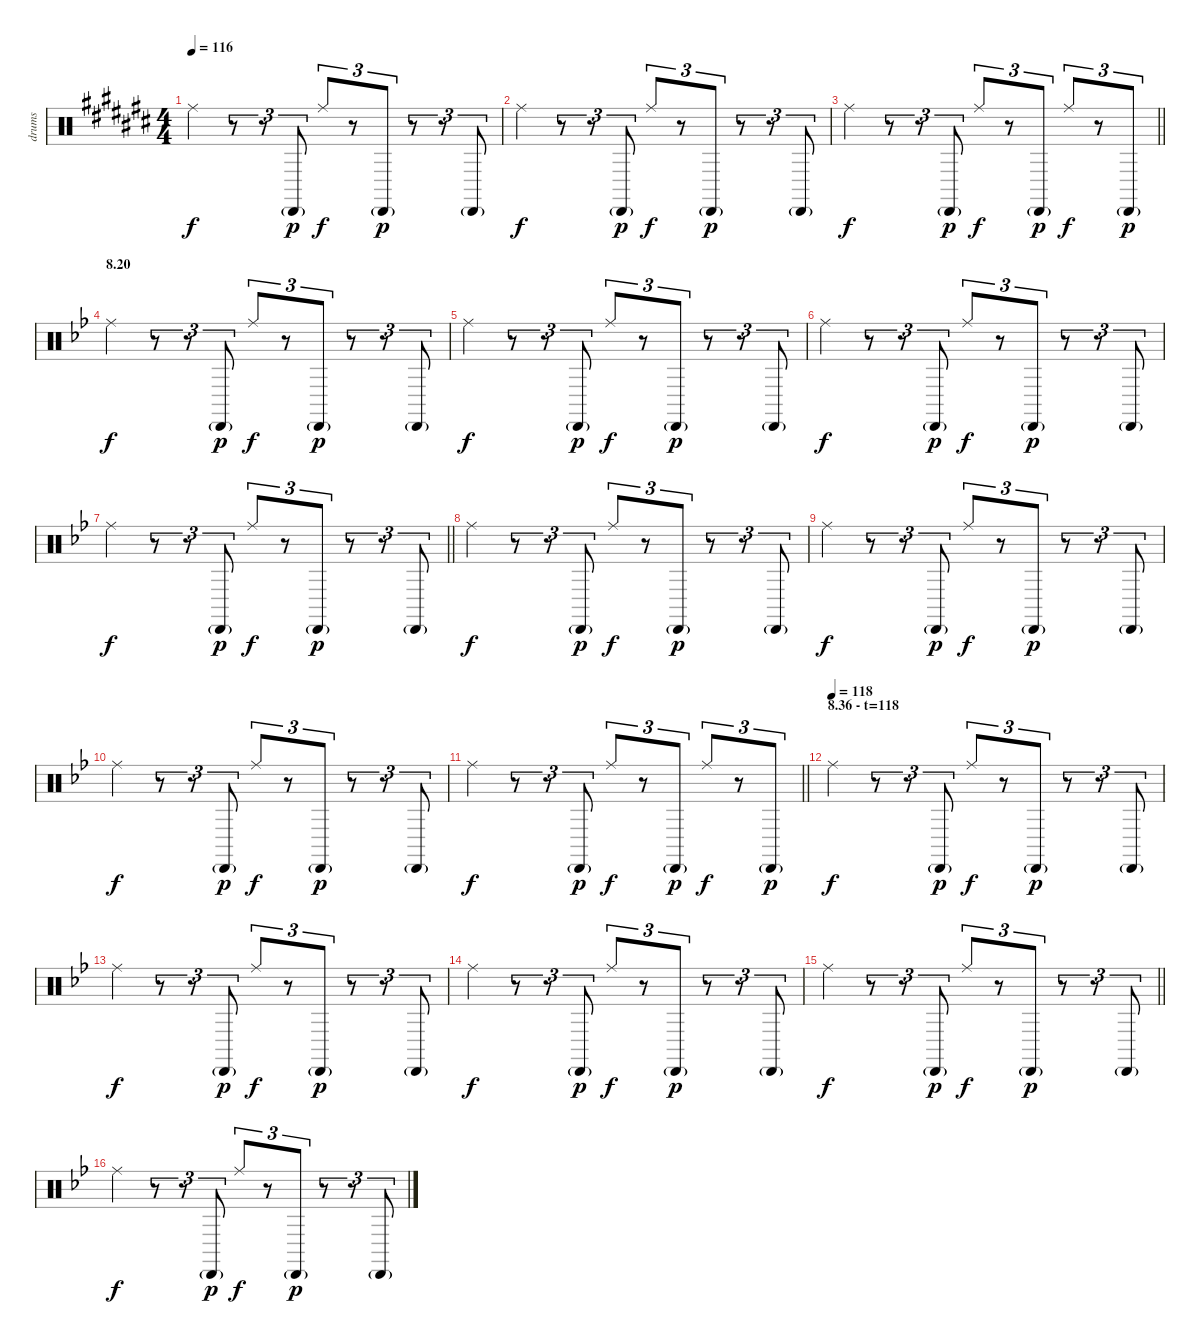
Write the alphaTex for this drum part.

\track ("drums" "drums") {instrument percussion}
\staff {score}
\articulation defaults
\ts (4 4)
\tempo 116
\clef neutral
\ks c# "Ride (middle)".4{dy f}
r.8{tu (3 2)} r.8{tu (3 2)} "Cabasa (hit)"{g}.8{tu (3 2) dy p} "Ride (middle)".8{tu (3 2) dy f} r.8{tu (3 2)} "Cabasa (hit)"{g}.8{tu (3 2) dy p} r.8{tu (3 2)} r.8{tu (3 2)} "Cabasa (hit)"{g}.8{tu (3 2)} |
"Ride (middle)".4{dy f} r.8{tu (3 2)} r.8{tu (3 2)} "Cabasa (hit)"{g}.8{tu (3 2) dy p} "Ride (middle)".8{tu (3 2) dy f} r.8{tu (3 2)} "Cabasa (hit)"{g}.8{tu (3 2) dy p} r.8{tu (3 2)} r.8{tu (3 2)} "Cabasa (hit)"{g}.8{tu (3 2)} |
\barLineRight lightlight "Ride (middle)".4{dy f}
r.8{tu (3 2)} r.8{tu (3 2)} "Cabasa (hit)"{g}.8{tu (3 2) dy p} "Ride (middle)".8{tu (3 2) dy f} r.8{tu (3 2)} "Cabasa (hit)"{g}.8{tu (3 2) dy p} "Ride (middle)".8{tu (3 2) dy f} r.8{tu (3 2)} "Cabasa (hit)"{g}.8{tu (3 2) dy p} |
\section ("" "8.20")
\ks bb "Ride (middle)".4{dy f}
r.8{tu (3 2)} r.8{tu (3 2)} "Cabasa (hit)"{g}.8{tu (3 2) dy p} "Ride (middle)".8{tu (3 2) dy f} r.8{tu (3 2)} "Cabasa (hit)"{g}.8{tu (3 2) dy p} r.8{tu (3 2)} r.8{tu (3 2)} "Cabasa (hit)"{g}.8{tu (3 2)} |
"Ride (middle)".4{dy f} r.8{tu (3 2)} r.8{tu (3 2)} "Cabasa (hit)"{g}.8{tu (3 2) dy p} "Ride (middle)".8{tu (3 2) dy f} r.8{tu (3 2)} "Cabasa (hit)"{g}.8{tu (3 2) dy p} r.8{tu (3 2)} r.8{tu (3 2)} "Cabasa (hit)"{g}.8{tu (3 2)} |
"Ride (middle)".4{dy f} r.8{tu (3 2)} r.8{tu (3 2)} "Cabasa (hit)"{g}.8{tu (3 2) dy p} "Ride (middle)".8{tu (3 2) dy f} r.8{tu (3 2)} "Cabasa (hit)"{g}.8{tu (3 2) dy p} r.8{tu (3 2)} r.8{tu (3 2)} "Cabasa (hit)"{g}.8{tu (3 2)} |
\barLineRight lightlight "Ride (middle)".4{dy f}
r.8{tu (3 2)} r.8{tu (3 2)} "Cabasa (hit)"{g}.8{tu (3 2) dy p} "Ride (middle)".8{tu (3 2) dy f} r.8{tu (3 2)} "Cabasa (hit)"{g}.8{tu (3 2) dy p} r.8{tu (3 2)} r.8{tu (3 2)} "Cabasa (hit)"{g}.8{tu (3 2)} |
"Ride (middle)".4{dy f} r.8{tu (3 2)} r.8{tu (3 2)} "Cabasa (hit)"{g}.8{tu (3 2) dy p} "Ride (middle)".8{tu (3 2) dy f} r.8{tu (3 2)} "Cabasa (hit)"{g}.8{tu (3 2) dy p} r.8{tu (3 2)} r.8{tu (3 2)} "Cabasa (hit)"{g}.8{tu (3 2)} |
"Ride (middle)".4{dy f} r.8{tu (3 2)} r.8{tu (3 2)} "Cabasa (hit)"{g}.8{tu (3 2) dy p} "Ride (middle)".8{tu (3 2) dy f} r.8{tu (3 2)} "Cabasa (hit)"{g}.8{tu (3 2) dy p} r.8{tu (3 2)} r.8{tu (3 2)} "Cabasa (hit)"{g}.8{tu (3 2)} |
"Ride (middle)".4{dy f} r.8{tu (3 2)} r.8{tu (3 2)} "Cabasa (hit)"{g}.8{tu (3 2) dy p} "Ride (middle)".8{tu (3 2) dy f} r.8{tu (3 2)} "Cabasa (hit)"{g}.8{tu (3 2) dy p} r.8{tu (3 2)} r.8{tu (3 2)} "Cabasa (hit)"{g}.8{tu (3 2)} |
\barLineRight lightlight "Ride (middle)".4{dy f}
r.8{tu (3 2)} r.8{tu (3 2)} "Cabasa (hit)"{g}.8{tu (3 2) dy p} "Ride (middle)".8{tu (3 2) dy f} r.8{tu (3 2)} "Cabasa (hit)"{g}.8{tu (3 2) dy p} "Ride (middle)".8{tu (3 2) dy f} r.8{tu (3 2)} "Cabasa (hit)"{g}.8{tu (3 2) dy p} |
\section ("" "8.36 - t=118")
\tempo (118)
"Ride (middle)".4{dy f} r.8{tu (3 2)} r.8{tu (3 2)} "Cabasa (hit)"{g}.8{tu (3 2) dy p} "Ride (middle)".8{tu (3 2) dy f} r.8{tu (3 2)} "Cabasa (hit)"{g}.8{tu (3 2) dy p} r.8{tu (3 2)} r.8{tu (3 2)} "Cabasa (hit)"{g}.8{tu (3 2)} |
"Ride (middle)".4{dy f} r.8{tu (3 2)} r.8{tu (3 2)} "Cabasa (hit)"{g}.8{tu (3 2) dy p} "Ride (middle)".8{tu (3 2) dy f} r.8{tu (3 2)} "Cabasa (hit)"{g}.8{tu (3 2) dy p} r.8{tu (3 2)} r.8{tu (3 2)} "Cabasa (hit)"{g}.8{tu (3 2)} |
"Ride (middle)".4{dy f} r.8{tu (3 2)} r.8{tu (3 2)} "Cabasa (hit)"{g}.8{tu (3 2) dy p} "Ride (middle)".8{tu (3 2) dy f} r.8{tu (3 2)} "Cabasa (hit)"{g}.8{tu (3 2) dy p} r.8{tu (3 2)} r.8{tu (3 2)} "Cabasa (hit)"{g}.8{tu (3 2)} |
\barLineRight lightlight "Ride (middle)".4{dy f}
r.8{tu (3 2)} r.8{tu (3 2)} "Cabasa (hit)"{g}.8{tu (3 2) dy p} "Ride (middle)".8{tu (3 2) dy f} r.8{tu (3 2)} "Cabasa (hit)"{g}.8{tu (3 2) dy p} r.8{tu (3 2)} r.8{tu (3 2)} "Cabasa (hit)"{g}.8{tu (3 2)} |
"Ride (middle)".4{dy f} r.8{tu (3 2)} r.8{tu (3 2)} "Cabasa (hit)"{g}.8{tu (3 2) dy p} "Ride (middle)".8{tu (3 2) dy f} r.8{tu (3 2)} "Cabasa (hit)"{g}.8{tu (3 2) dy p} r.8{tu (3 2)} r.8{tu (3 2)} "Cabasa (hit)"{g}.8{tu (3 2)}
